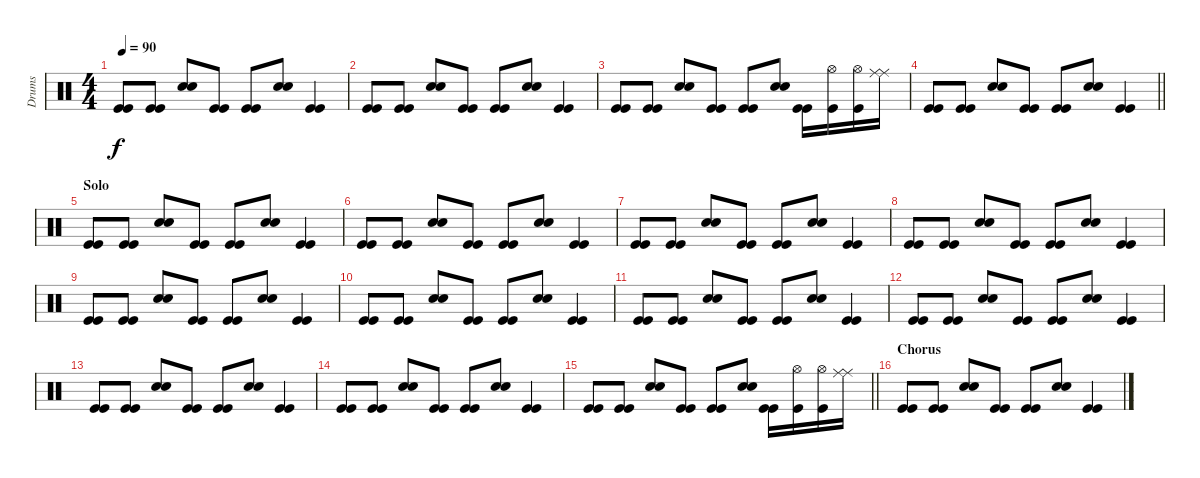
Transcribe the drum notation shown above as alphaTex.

\track ("Drums" "Drums") {instrument percussion}
\staff {score}
\articulation defaults
\ts (4 4)
\tempo 90
\clef neutral
\ks c
("Kick (hit)" "Kick (hit)").8{dy f} ("Kick (hit)" "Kick (hit)").8 ("Electric Snare (hit)" "Electric Snare (hit)").8 ("Kick (hit)" "Kick (hit)").8 ("Kick (hit)" "Kick (hit)").8 ("Electric Snare (hit)" "Electric Snare (hit)").8 ("Kick (hit)" "Kick (hit)").4 |
("Kick (hit)" "Kick (hit)").8 ("Kick (hit)" "Kick (hit)").8 ("Electric Snare (hit)" "Electric Snare (hit)").8 ("Kick (hit)" "Kick (hit)").8 ("Kick (hit)" "Kick (hit)").8 ("Electric Snare (hit)" "Electric Snare (hit)").8 ("Kick (hit)" "Kick (hit)").4 |
("Kick (hit)" "Kick (hit)").8 ("Kick (hit)" "Kick (hit)").8 ("Electric Snare (hit)" "Electric Snare (hit)").8 ("Kick (hit)" "Kick (hit)").8 ("Kick (hit)" "Kick (hit)").8 ("Electric Snare (hit)" "Electric Snare (hit)").8 ("Kick (hit)" "Kick (hit)").16 ("Hi-Hat (open)" "Kick (hit)").16 ("Hi-Hat (open)" "Kick (hit)").16 ("Ride (middle)" "Ride (middle)").16 |
\barLineRight lightlight
("Kick (hit)" "Kick (hit)").8 ("Kick (hit)" "Kick (hit)").8 ("Electric Snare (hit)" "Electric Snare (hit)").8 ("Kick (hit)" "Kick (hit)").8 ("Kick (hit)" "Kick (hit)").8 ("Electric Snare (hit)" "Electric Snare (hit)").8 ("Kick (hit)" "Kick (hit)").4 |
\section ("" "Solo")
("Kick (hit)" "Kick (hit)").8 ("Kick (hit)" "Kick (hit)").8 ("Electric Snare (hit)" "Electric Snare (hit)").8 ("Kick (hit)" "Kick (hit)").8 ("Kick (hit)" "Kick (hit)").8 ("Electric Snare (hit)" "Electric Snare (hit)").8 ("Kick (hit)" "Kick (hit)").4 |
("Kick (hit)" "Kick (hit)").8 ("Kick (hit)" "Kick (hit)").8 ("Electric Snare (hit)" "Electric Snare (hit)").8 ("Kick (hit)" "Kick (hit)").8 ("Kick (hit)" "Kick (hit)").8 ("Electric Snare (hit)" "Electric Snare (hit)").8 ("Kick (hit)" "Kick (hit)").4 |
("Kick (hit)" "Kick (hit)").8 ("Kick (hit)" "Kick (hit)").8 ("Electric Snare (hit)" "Electric Snare (hit)").8 ("Kick (hit)" "Kick (hit)").8 ("Kick (hit)" "Kick (hit)").8 ("Electric Snare (hit)" "Electric Snare (hit)").8 ("Kick (hit)" "Kick (hit)").4 |
("Kick (hit)" "Kick (hit)").8 ("Kick (hit)" "Kick (hit)").8 ("Electric Snare (hit)" "Electric Snare (hit)").8 ("Kick (hit)" "Kick (hit)").8 ("Kick (hit)" "Kick (hit)").8 ("Electric Snare (hit)" "Electric Snare (hit)").8 ("Kick (hit)" "Kick (hit)").4 |
("Kick (hit)" "Kick (hit)").8 ("Kick (hit)" "Kick (hit)").8 ("Electric Snare (hit)" "Electric Snare (hit)").8 ("Kick (hit)" "Kick (hit)").8 ("Kick (hit)" "Kick (hit)").8 ("Electric Snare (hit)" "Electric Snare (hit)").8 ("Kick (hit)" "Kick (hit)").4 |
("Kick (hit)" "Kick (hit)").8 ("Kick (hit)" "Kick (hit)").8 ("Electric Snare (hit)" "Electric Snare (hit)").8 ("Kick (hit)" "Kick (hit)").8 ("Kick (hit)" "Kick (hit)").8 ("Electric Snare (hit)" "Electric Snare (hit)").8 ("Kick (hit)" "Kick (hit)").4 |
("Kick (hit)" "Kick (hit)").8 ("Kick (hit)" "Kick (hit)").8 ("Electric Snare (hit)" "Electric Snare (hit)").8 ("Kick (hit)" "Kick (hit)").8 ("Kick (hit)" "Kick (hit)").8 ("Electric Snare (hit)" "Electric Snare (hit)").8 ("Kick (hit)" "Kick (hit)").4 |
("Kick (hit)" "Kick (hit)").8 ("Kick (hit)" "Kick (hit)").8 ("Electric Snare (hit)" "Electric Snare (hit)").8 ("Kick (hit)" "Kick (hit)").8 ("Kick (hit)" "Kick (hit)").8 ("Electric Snare (hit)" "Electric Snare (hit)").8 ("Kick (hit)" "Kick (hit)").4 |
("Kick (hit)" "Kick (hit)").8 ("Kick (hit)" "Kick (hit)").8 ("Electric Snare (hit)" "Electric Snare (hit)").8 ("Kick (hit)" "Kick (hit)").8 ("Kick (hit)" "Kick (hit)").8 ("Electric Snare (hit)" "Electric Snare (hit)").8 ("Kick (hit)" "Kick (hit)").4 |
("Kick (hit)" "Kick (hit)").8 ("Kick (hit)" "Kick (hit)").8 ("Electric Snare (hit)" "Electric Snare (hit)").8 ("Kick (hit)" "Kick (hit)").8 ("Kick (hit)" "Kick (hit)").8 ("Electric Snare (hit)" "Electric Snare (hit)").8 ("Kick (hit)" "Kick (hit)").4 |
\barLineRight lightlight
("Kick (hit)" "Kick (hit)").8 ("Kick (hit)" "Kick (hit)").8 ("Electric Snare (hit)" "Electric Snare (hit)").8 ("Kick (hit)" "Kick (hit)").8 ("Kick (hit)" "Kick (hit)").8 ("Electric Snare (hit)" "Electric Snare (hit)").8 ("Kick (hit)" "Kick (hit)").16 ("Hi-Hat (open)" "Kick (hit)").16 ("Hi-Hat (open)" "Kick (hit)").16 ("Ride (middle)" "Ride (middle)").16 |
\section ("" "Chorus")
("Kick (hit)" "Kick (hit)").8 ("Kick (hit)" "Kick (hit)").8 ("Electric Snare (hit)" "Electric Snare (hit)").8 ("Kick (hit)" "Kick (hit)").8 ("Kick (hit)" "Kick (hit)").8 ("Electric Snare (hit)" "Electric Snare (hit)").8 ("Kick (hit)" "Kick (hit)").4
